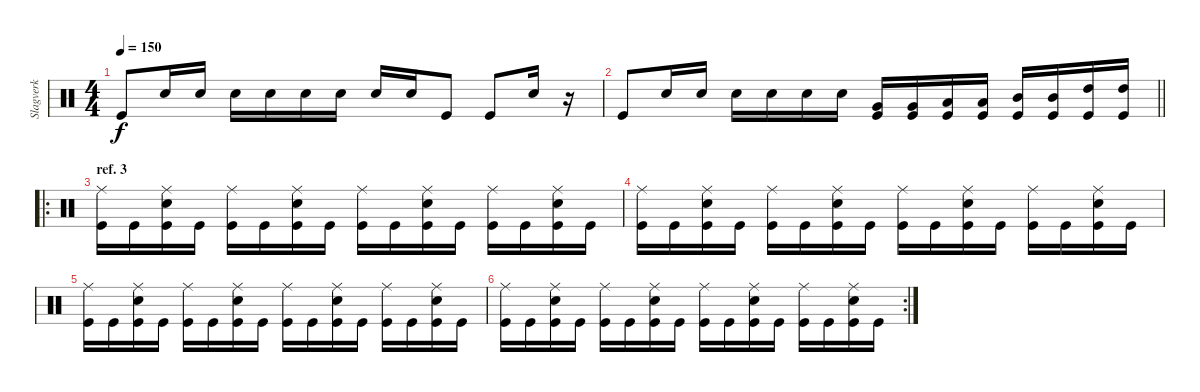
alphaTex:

\track ("Slagverk" "Slagverk") {instrument percussion}
\staff {score}
\articulation defaults
\ts (4 4)
\tempo 150
\clef neutral
\ks c "Kick (hit)".8{dy f} "Snare (hit) 2".16 "Snare (hit) 2".16 "Snare (hit) 2".16 "Snare (hit) 2".16 "Snare (hit) 2".16 "Snare (hit) 2".16 "Snare (hit) 2".16 "Snare (hit) 2".16 "Kick (hit)".8 "Kick (hit)".8 "Snare (hit) 2".16
r.16 |
\barLineRight lightlight "Kick (hit)".8 "Snare (hit) 2".16 "Snare (hit) 2".16 "Snare (hit) 2".16 "Snare (hit) 2".16 "Snare (hit) 2".16 "Snare (hit) 2".16
("Kick (hit)" "Very Low Tom (hit)").16 ("Kick (hit)" "Very Low Tom (hit)").16 ("Kick (hit)" "Low Tom (hit)").16 ("Kick (hit)" "Low Tom (hit)").16 ("Kick (hit)" "Mid Tom (hit)").16 ("Kick (hit)" "Mid Tom (hit)").16 ("Kick (hit)" "High Tom (hit)").16 ("Kick (hit)" "High Tom (hit)").16 |
\ro
\section ("" "ref. 3")
("Kick (hit)" "Ride (middle)").16 "Kick (hit)".16 ("Kick (hit)" "Snare (hit) 2" "Ride (middle)").16 "Kick (hit)".16 ("Kick (hit)" "Ride (middle)").16 "Kick (hit)".16 ("Kick (hit)" "Snare (hit) 2" "Ride (middle)").16 "Kick (hit)".16 ("Kick (hit)" "Ride (middle)").16 "Kick (hit)".16 ("Kick (hit)" "Snare (hit) 2" "Ride (middle)").16 "Kick (hit)".16 ("Kick (hit)" "Ride (middle)").16 "Kick (hit)".16 ("Kick (hit)" "Snare (hit) 2" "Ride (middle)").16 "Kick (hit)".16 |
("Kick (hit)" "Ride (middle)").16 "Kick (hit)".16 ("Kick (hit)" "Snare (hit) 2" "Ride (middle)").16 "Kick (hit)".16 ("Kick (hit)" "Ride (middle)").16 "Kick (hit)".16 ("Kick (hit)" "Snare (hit) 2" "Ride (middle)").16 "Kick (hit)".16 ("Kick (hit)" "Ride (middle)").16 "Kick (hit)".16 ("Kick (hit)" "Snare (hit) 2" "Ride (middle)").16 "Kick (hit)".16 ("Kick (hit)" "Ride (middle)").16 "Kick (hit)".16 ("Kick (hit)" "Snare (hit) 2" "Ride (middle)").16 "Kick (hit)".16 |
("Kick (hit)" "Ride (middle)").16 "Kick (hit)".16 ("Kick (hit)" "Snare (hit) 2" "Ride (middle)").16 "Kick (hit)".16 ("Kick (hit)" "Ride (middle)").16 "Kick (hit)".16 ("Kick (hit)" "Snare (hit) 2" "Ride (middle)").16 "Kick (hit)".16 ("Kick (hit)" "Ride (middle)").16 "Kick (hit)".16 ("Kick (hit)" "Snare (hit) 2" "Ride (middle)").16 "Kick (hit)".16 ("Kick (hit)" "Ride (middle)").16 "Kick (hit)".16 ("Kick (hit)" "Snare (hit) 2" "Ride (middle)").16 "Kick (hit)".16 |
\rc 2
("Kick (hit)" "Ride (middle)").16 "Kick (hit)".16 ("Kick (hit)" "Snare (hit) 2" "Ride (middle)").16 "Kick (hit)".16 ("Kick (hit)" "Ride (middle)").16 "Kick (hit)".16 ("Kick (hit)" "Snare (hit) 2" "Ride (middle)").16 "Kick (hit)".16 ("Kick (hit)" "Ride (middle)").16 "Kick (hit)".16 ("Kick (hit)" "Snare (hit) 2" "Ride (middle)").16 "Kick (hit)".16 ("Kick (hit)" "Ride (middle)").16 "Kick (hit)".16 ("Kick (hit)" "Snare (hit) 2" "Ride (middle)").16 "Kick (hit)".16
